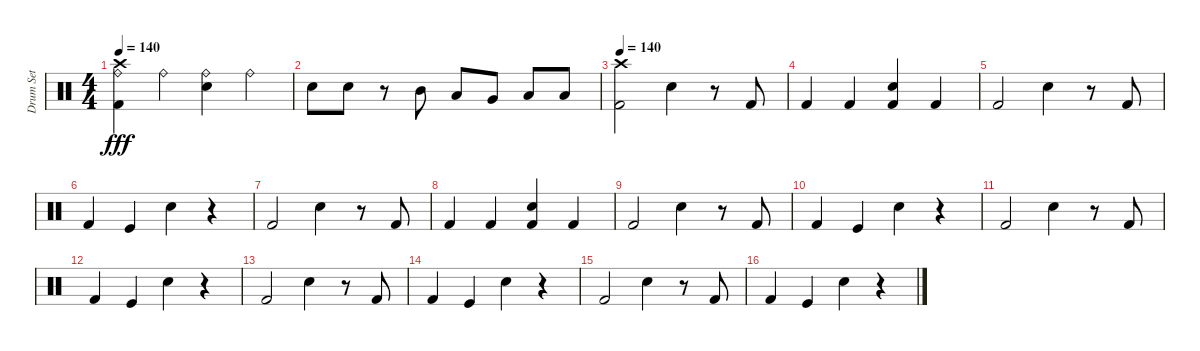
\track ("Drum Set" "Drum Set") {instrument percussion}
\staff {score}
\articulation defaults
\ts (4 4)
\tempo 140
\clef neutral
\ks c
("Kick (hit) 2" "Crash high (hit)" "Ride (bell)").4{dy fff} "Ride (bell)".4 ("Electric Snare (hit)" "Ride (bell)").4 "Ride (bell)".4 |
"Electric Snare (hit)".8 "Electric Snare (hit)".8 r.8 "Mid Tom (hit)".8 "Low Tom (hit)".8 "Very Low Tom (hit)".8 "Low Floor Tom (hit)".8 "Low Floor Tom (hit)".8 |
\tempo 140
("Kick (hit) 2" "Crash high (hit)").2 "Electric Snare (hit)".4 r.8 "Kick (hit) 2".8 |
"Kick (hit) 2".4 "Kick (hit) 2".4 ("Electric Snare (hit)" "Kick (hit) 2").4 "Kick (hit) 2".4 |
"Kick (hit) 2".2 "Electric Snare (hit)".4 r.8 "Kick (hit) 2".8 |
"Kick (hit) 2".4 "Kick (hit)".4 "Electric Snare (hit)".4 r.4 |
"Kick (hit) 2".2 "Electric Snare (hit)".4 r.8 "Kick (hit) 2".8 |
"Kick (hit) 2".4 "Kick (hit) 2".4 ("Electric Snare (hit)" "Kick (hit) 2").4 "Kick (hit) 2".4 |
"Kick (hit) 2".2 "Electric Snare (hit)".4 r.8 "Kick (hit) 2".8 |
"Kick (hit) 2".4 "Kick (hit)".4 "Electric Snare (hit)".4 r.4 |
"Kick (hit) 2".2 "Electric Snare (hit)".4 r.8 "Kick (hit) 2".8 |
"Kick (hit) 2".4 "Kick (hit)".4 "Electric Snare (hit)".4 r.4 |
"Kick (hit) 2".2 "Electric Snare (hit)".4 r.8 "Kick (hit) 2".8 |
"Kick (hit) 2".4 "Kick (hit)".4 "Electric Snare (hit)".4 r.4 |
"Kick (hit) 2".2 "Electric Snare (hit)".4 r.8 "Kick (hit) 2".8 |
"Kick (hit) 2".4 "Kick (hit)".4 "Electric Snare (hit)".4 r.4
